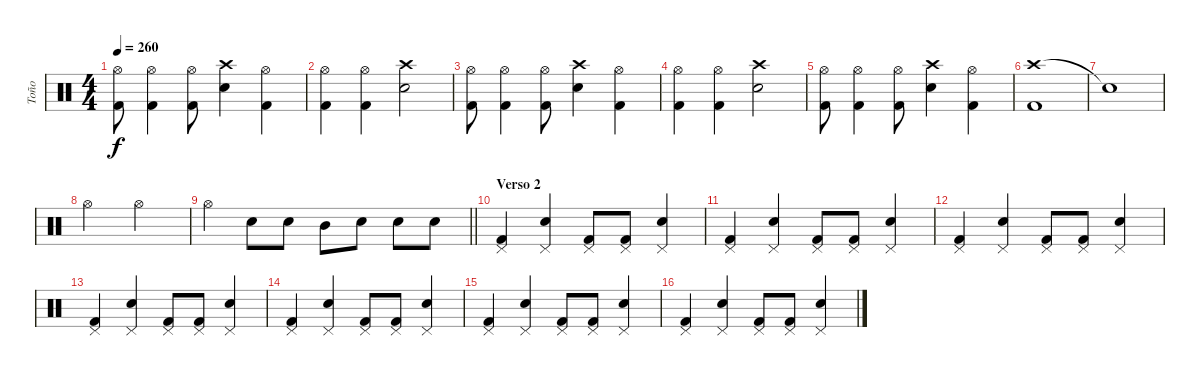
\track ("Toño" "Toño") {instrument percussion}
\staff {score}
\articulation defaults
\ts (4 4)
\tempo 260
\clef neutral
\ks c
("Hi-Hat (open)" "Kick (hit) 2").8{dy f} ("Hi-Hat (open)" "Kick (hit) 2").4 ("Hi-Hat (open)" "Kick (hit) 2").8 ("Crash high (hit)" "Electric Snare (hit)").4 ("Hi-Hat (open)" "Kick (hit) 2").4 |
("Hi-Hat (open)" "Kick (hit) 2").4 ("Hi-Hat (open)" "Kick (hit) 2").4 ("Crash high (hit)" "Electric Snare (hit)").2 |
("Hi-Hat (open)" "Kick (hit) 2").8 ("Hi-Hat (open)" "Kick (hit) 2").4 ("Hi-Hat (open)" "Kick (hit) 2").8 ("Crash high (hit)" "Electric Snare (hit)").4 ("Hi-Hat (open)" "Kick (hit) 2").4 |
("Hi-Hat (open)" "Kick (hit) 2").4 ("Hi-Hat (open)" "Kick (hit) 2").4 ("Crash high (hit)" "Electric Snare (hit)").2 |
("Hi-Hat (open)" "Kick (hit) 2").8 ("Hi-Hat (open)" "Kick (hit) 2").4 ("Hi-Hat (open)" "Kick (hit) 2").8 ("Crash high (hit)" "Electric Snare (hit)").4 ("Hi-Hat (open)" "Kick (hit) 2").4 |
("Crash high (hit)" "Kick (hit) 2").1 |
"Snare (hit)"{t}.1 |
"Hi-Hat (open)".2 "Hi-Hat (open)".2 |
\barLineRight lightlight "Hi-Hat (open)".4 "Electric Snare (hit)".8 "Electric Snare (hit)".8 "Mid Tom (hit)".8 "Electric Snare (hit)".8 "Electric Snare (hit)".8 "Electric Snare (hit)".8
|
\section ("" "Verso 2")
("Pedal Hi-Hat (hit)" "Kick (hit) 2").4 ("Pedal Hi-Hat (hit)" "Electric Snare (hit)").4 ("Pedal Hi-Hat (hit)" "Kick (hit) 2").8 ("Pedal Hi-Hat (hit)" "Kick (hit) 2").8 ("Pedal Hi-Hat (hit)" "Electric Snare (hit)").4 |
("Pedal Hi-Hat (hit)" "Kick (hit) 2").4 ("Pedal Hi-Hat (hit)" "Electric Snare (hit)").4 ("Pedal Hi-Hat (hit)" "Kick (hit) 2").8 ("Pedal Hi-Hat (hit)" "Kick (hit) 2").8 ("Pedal Hi-Hat (hit)" "Electric Snare (hit)").4 |
("Pedal Hi-Hat (hit)" "Kick (hit) 2").4 ("Pedal Hi-Hat (hit)" "Electric Snare (hit)").4 ("Pedal Hi-Hat (hit)" "Kick (hit) 2").8 ("Pedal Hi-Hat (hit)" "Kick (hit) 2").8 ("Pedal Hi-Hat (hit)" "Electric Snare (hit)").4 |
("Pedal Hi-Hat (hit)" "Kick (hit) 2").4 ("Pedal Hi-Hat (hit)" "Electric Snare (hit)").4 ("Pedal Hi-Hat (hit)" "Kick (hit) 2").8 ("Pedal Hi-Hat (hit)" "Kick (hit) 2").8 ("Pedal Hi-Hat (hit)" "Electric Snare (hit)").4 |
("Pedal Hi-Hat (hit)" "Kick (hit) 2").4 ("Pedal Hi-Hat (hit)" "Electric Snare (hit)").4 ("Pedal Hi-Hat (hit)" "Kick (hit) 2").8 ("Pedal Hi-Hat (hit)" "Kick (hit) 2").8 ("Pedal Hi-Hat (hit)" "Electric Snare (hit)").4 |
("Pedal Hi-Hat (hit)" "Kick (hit) 2").4 ("Pedal Hi-Hat (hit)" "Electric Snare (hit)").4 ("Pedal Hi-Hat (hit)" "Kick (hit) 2").8 ("Pedal Hi-Hat (hit)" "Kick (hit) 2").8 ("Pedal Hi-Hat (hit)" "Electric Snare (hit)").4 |
("Pedal Hi-Hat (hit)" "Kick (hit) 2").4 ("Pedal Hi-Hat (hit)" "Electric Snare (hit)").4 ("Pedal Hi-Hat (hit)" "Kick (hit) 2").8 ("Pedal Hi-Hat (hit)" "Kick (hit) 2").8 ("Pedal Hi-Hat (hit)" "Electric Snare (hit)").4
